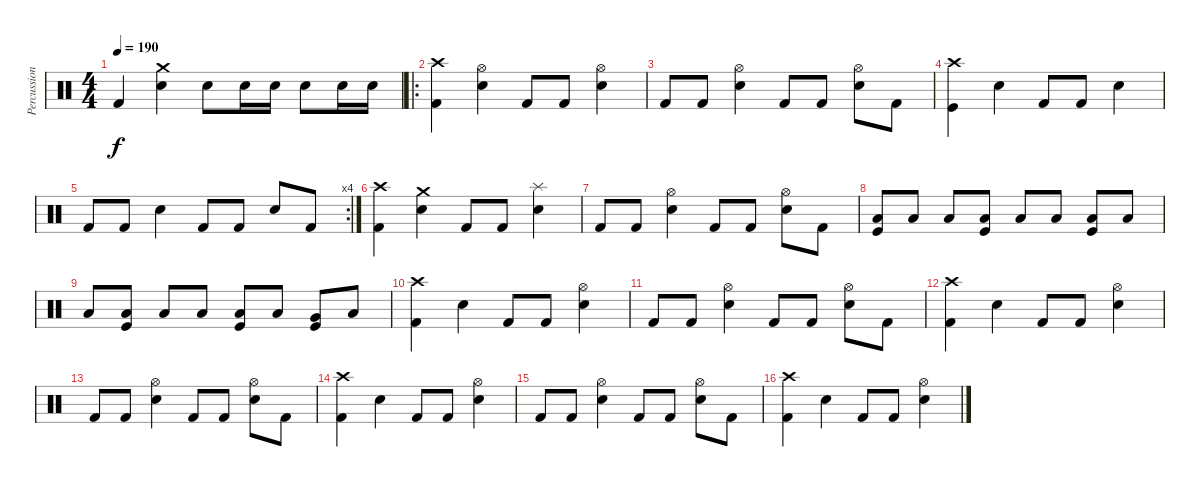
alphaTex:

\track ("Percussions" "Percussion") {instrument percussion}
\staff {score}
\articulation defaults
\ts (4 4)
\tempo 190
\clef neutral
\ks c "Kick (hit) 2".4{dy f}
("Crash medium (hit)" "Snare (hit) 2").4 "Electric Snare (hit)".8 "Electric Snare (hit)".16 "Electric Snare (hit)".16 "Electric Snare (hit)".8 "Electric Snare (hit)".16 "Electric Snare (hit)".16 |
\ro
("Crash high (hit)" "Kick (hit) 2").4 ("Hi-Hat (open)" "Snare (hit) 2").4 "Kick (hit) 2".8 "Kick (hit) 2".8 ("Hi-Hat (open)" "Snare (hit) 2").4 |
"Kick (hit) 2".8 "Kick (hit) 2".8 ("Hi-Hat (open)" "Snare (hit) 2").4 "Kick (hit) 2".8 "Kick (hit) 2".8 ("Hi-Hat (open)" "Snare (hit) 2").8 "Kick (hit) 2".8 |
("Crash high (hit)" "Kick (hit)").4 "Snare (hit) 2".4 "Kick (hit) 2".8 "Kick (hit) 2".8 "Snare (hit) 2".4 |
\rc 4 "Kick (hit) 2".8 "Kick (hit) 2".8 "Snare (hit) 2".4 "Kick (hit) 2".8 "Kick (hit) 2".8 "Snare (hit) 2".8 "Kick (hit) 2".8
|
("Crash high (hit)" "Kick (hit) 2").4 ("Crash medium (hit)" "Snare (hit) 2").4 "Kick (hit) 2".8 "Kick (hit) 2".8 ("Splash (hit)" "Snare (hit) 2").4 |
"Kick (hit) 2".8 "Kick (hit) 2".8 ("Hi-Hat (open)" "Snare (hit) 2").4 "Kick (hit) 2".8 "Kick (hit) 2".8 ("Hi-Hat (open)" "Snare (hit) 2").8 "Kick (hit) 2".8 |
("Low Floor Tom (hit)" "Kick (hit)").8 "Low Floor Tom (hit)".8 "Low Floor Tom (hit)".8 ("Low Tom (hit)" "Kick (hit)").8 "Low Floor Tom (hit)".8 "Low Floor Tom (hit)".8 ("Low Floor Tom (hit)" "Kick (hit)").8 "Low Floor Tom (hit)".8 |
"Low Floor Tom (hit)".8 ("Low Tom (hit)" "Kick (hit)").8 "Low Floor Tom (hit)".8 "Low Floor Tom (hit)".8 ("Low Tom (hit)" "Kick (hit)").8 "Low Floor Tom (hit)".8 ("Very Low Tom (hit)" "Kick (hit)").8 "Low Floor Tom (hit)".8 |
("Crash high (hit)" "Kick (hit) 2").4 "Snare (hit) 2".4 "Kick (hit) 2".8 "Kick (hit) 2".8 ("Hi-Hat (open)" "Snare (hit) 2").4 |
"Kick (hit) 2".8 "Kick (hit) 2".8 ("Hi-Hat (open)" "Snare (hit) 2").4 "Kick (hit) 2".8 "Kick (hit) 2".8 ("Hi-Hat (open)" "Snare (hit) 2").8 "Kick (hit) 2".8 |
("Crash high (hit)" "Kick (hit) 2").4 "Snare (hit) 2".4 "Kick (hit) 2".8 "Kick (hit) 2".8 ("Hi-Hat (open)" "Snare (hit) 2").4 |
"Kick (hit) 2".8 "Kick (hit) 2".8 ("Hi-Hat (open)" "Snare (hit) 2").4 "Kick (hit) 2".8 "Kick (hit) 2".8 ("Hi-Hat (open)" "Snare (hit) 2").8 "Kick (hit) 2".8 |
("Crash high (hit)" "Kick (hit) 2").4 "Snare (hit) 2".4 "Kick (hit) 2".8 "Kick (hit) 2".8 ("Hi-Hat (open)" "Snare (hit) 2").4 |
"Kick (hit) 2".8 "Kick (hit) 2".8 ("Hi-Hat (open)" "Snare (hit) 2").4 "Kick (hit) 2".8 "Kick (hit) 2".8 ("Hi-Hat (open)" "Snare (hit) 2").8 "Kick (hit) 2".8 |
("Crash high (hit)" "Kick (hit) 2").4 "Snare (hit) 2".4 "Kick (hit) 2".8 "Kick (hit) 2".8 ("Hi-Hat (open)" "Snare (hit) 2").4
